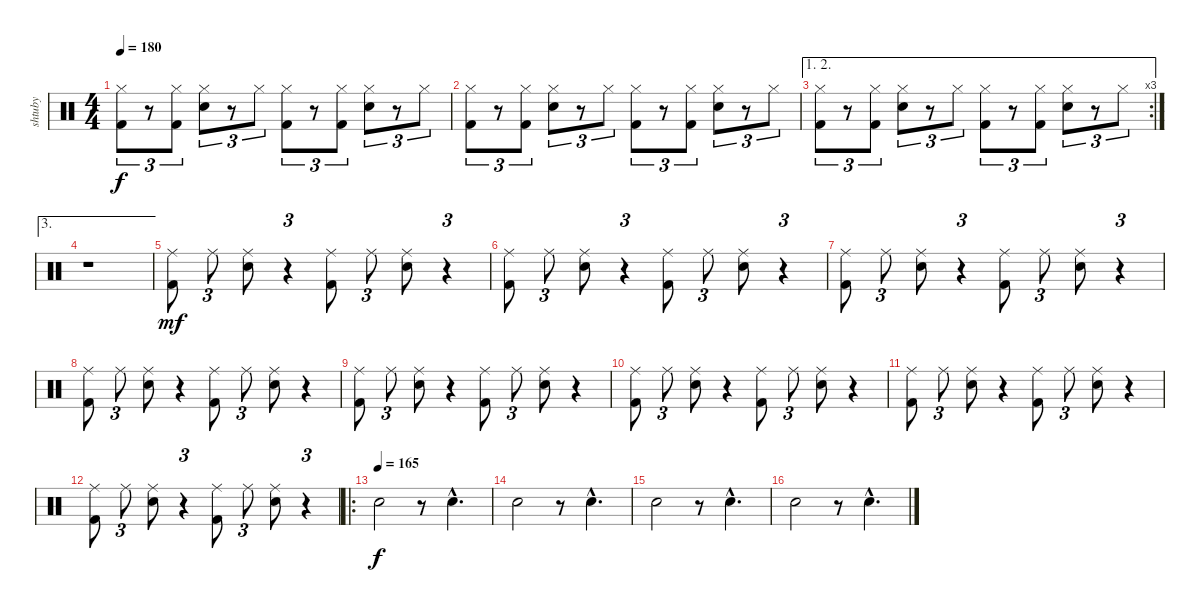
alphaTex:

\track ("shtuby" "shtuby") {instrument percussion}
\staff {score}
\articulation defaults
\ts (4 4)
\tempo 180
\clef neutral
\ks c
("Hi-Hat (closed)" "Kick (hit) 2").8{tu (3 2) dy f} r.8{tu (3 2)} ("Hi-Hat (closed)" "Kick (hit) 2").8{tu (3 2)} ("Hi-Hat (closed)" "Electric Snare (hit)").8{tu (3 2)} r.8{tu (3 2)} "Hi-Hat (closed)".8{tu (3 2)} ("Hi-Hat (closed)" "Kick (hit) 2").8{tu (3 2)} r.8{tu (3 2)} ("Hi-Hat (closed)" "Kick (hit) 2").8{tu (3 2)} ("Hi-Hat (closed)" "Electric Snare (hit)").8{tu (3 2)} r.8{tu (3 2)} "Hi-Hat (closed)".8{tu (3 2)} |
("Hi-Hat (closed)" "Kick (hit) 2").8{tu (3 2)} r.8{tu (3 2)} ("Hi-Hat (closed)" "Kick (hit) 2").8{tu (3 2)} ("Hi-Hat (closed)" "Electric Snare (hit)").8{tu (3 2)} r.8{tu (3 2)} "Hi-Hat (closed)".8{tu (3 2)} ("Hi-Hat (closed)" "Kick (hit) 2").8{tu (3 2)} r.8{tu (3 2)} ("Hi-Hat (closed)" "Kick (hit) 2").8{tu (3 2)} ("Hi-Hat (closed)" "Electric Snare (hit)").8{tu (3 2)} r.8{tu (3 2)} "Hi-Hat (closed)".8{tu (3 2)} |
\ae (1 2)
\rc 3
("Hi-Hat (closed)" "Kick (hit) 2").8{tu (3 2)} r.8{tu (3 2)} ("Hi-Hat (closed)" "Kick (hit) 2").8{tu (3 2)} ("Hi-Hat (closed)" "Electric Snare (hit)").8{tu (3 2)} r.8{tu (3 2)} "Hi-Hat (closed)".8{tu (3 2)} ("Hi-Hat (closed)" "Kick (hit) 2").8{tu (3 2)} r.8{tu (3 2)} ("Hi-Hat (closed)" "Kick (hit) 2").8{tu (3 2)} ("Hi-Hat (closed)" "Electric Snare (hit)").8{tu (3 2)} r.8{tu (3 2)} "Hi-Hat (closed)".8{tu (3 2)} |
\ae 3
r.1 |
("Ride (middle)" "Kick (hit) 2").8{dy mf} "Ride (middle)".8{tu (3 2)} ("Ride (middle)" "Electric Snare (hit)").8 r.4{tu (3 2)} ("Ride (middle)" "Kick (hit) 2").8 "Ride (middle)".8{tu (3 2)} ("Ride (middle)" "Electric Snare (hit)").8 r.4{tu (3 2)} |
("Ride (middle)" "Kick (hit) 2").8 "Ride (middle)".8{tu (3 2)} ("Ride (middle)" "Electric Snare (hit)").8 r.4{tu (3 2)} ("Ride (middle)" "Kick (hit) 2").8 "Ride (middle)".8{tu (3 2)} ("Ride (middle)" "Electric Snare (hit)").8 r.4{tu (3 2)} |
("Ride (middle)" "Kick (hit) 2").8 "Ride (middle)".8{tu (3 2)} ("Ride (middle)" "Electric Snare (hit)").8 r.4{tu (3 2)} ("Ride (middle)" "Kick (hit) 2").8 "Ride (middle)".8{tu (3 2)} ("Ride (middle)" "Electric Snare (hit)").8 r.4{tu (3 2)} |
("Ride (middle)" "Kick (hit) 2").8 "Ride (middle)".8{tu (3 2)} ("Ride (middle)" "Electric Snare (hit)").8 r.4{tu (3 2)} ("Ride (middle)" "Kick (hit) 2").8 "Ride (middle)".8{tu (3 2)} ("Ride (middle)" "Electric Snare (hit)").8 r.4{tu (3 2)} |
("Ride (middle)" "Kick (hit) 2").8 "Ride (middle)".8{tu (3 2)} ("Ride (middle)" "Electric Snare (hit)").8 r.4{tu (3 2)} ("Ride (middle)" "Kick (hit) 2").8 "Ride (middle)".8{tu (3 2)} ("Ride (middle)" "Electric Snare (hit)").8 r.4{tu (3 2)} |
("Ride (middle)" "Kick (hit) 2").8 "Ride (middle)".8{tu (3 2)} ("Ride (middle)" "Electric Snare (hit)").8 r.4{tu (3 2)} ("Ride (middle)" "Kick (hit) 2").8 "Ride (middle)".8{tu (3 2)} ("Ride (middle)" "Electric Snare (hit)").8 r.4{tu (3 2)} |
("Ride (middle)" "Kick (hit) 2").8 "Ride (middle)".8{tu (3 2)} ("Ride (middle)" "Electric Snare (hit)").8 r.4{tu (3 2)} ("Ride (middle)" "Kick (hit) 2").8 "Ride (middle)".8{tu (3 2)} ("Ride (middle)" "Electric Snare (hit)").8 r.4{tu (3 2)} |
("Ride (middle)" "Kick (hit) 2").8 "Ride (middle)".8{tu (3 2)} ("Ride (middle)" "Electric Snare (hit)").8 r.4{tu (3 2)} ("Ride (middle)" "Kick (hit) 2").8 "Ride (middle)".8{tu (3 2)} ("Ride (middle)" "Electric Snare (hit)").8 r.4{tu (3 2)} |
\ro
\tempo (165)
"Electric Snare (hit)".2{dy f} r.8 "Electric Snare (hit)"{hac}.4{d} |
"Electric Snare (hit)".2 r.8 "Electric Snare (hit)"{hac}.4{d} |
"Electric Snare (hit)".2 r.8 "Electric Snare (hit)"{hac}.4{d} |
"Electric Snare (hit)".2 r.8 "Electric Snare (hit)"{hac}.4{d}
